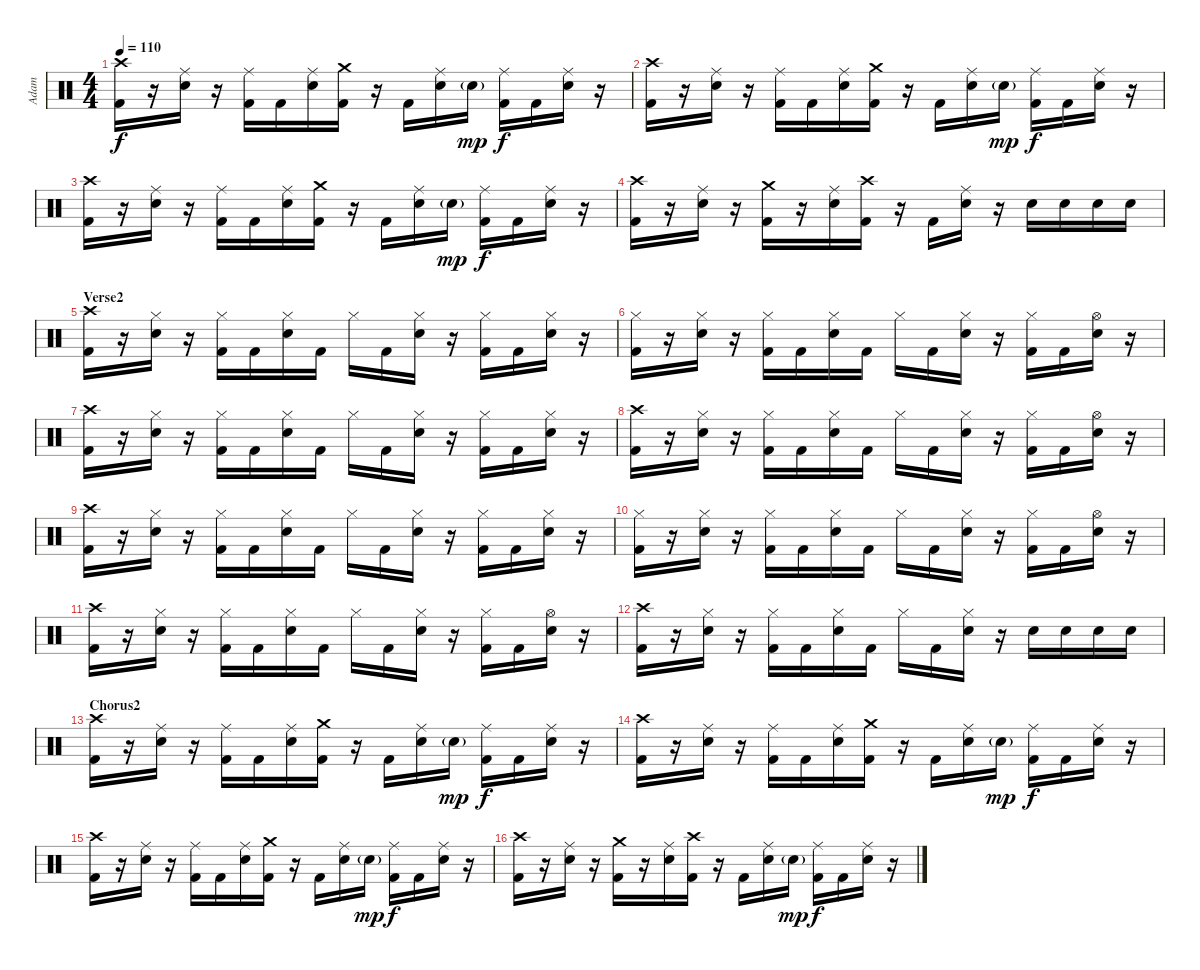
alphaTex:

\track ("Adam" "Adam") {instrument percussion}
\staff {score}
\articulation defaults
\ts (4 4)
\tempo 110
\clef neutral
\ks c
("Crash high (hit)" "Kick (hit) 2").16{dy f} r.16 ("Ride (middle)" "Electric Snare (hit)").16 r.16 ("Ride (middle)" "Kick (hit) 2").16 "Kick (hit) 2".16 ("Ride (middle)" "Electric Snare (hit)").16 ("Crash medium (hit)" "Kick (hit) 2").16 r.16 "Kick (hit) 2".16 ("Ride (middle)" "Electric Snare (hit)").16 "Electric Snare (hit)"{g}.16{dy mp} ("Ride (middle)" "Kick (hit) 2").16{dy f} "Kick (hit) 2".16 ("Ride (middle)" "Electric Snare (hit)").16 r.16 |
("Crash high (hit)" "Kick (hit) 2").16 r.16 ("Ride (middle)" "Electric Snare (hit)").16 r.16 ("Ride (middle)" "Kick (hit) 2").16 "Kick (hit) 2".16 ("Ride (middle)" "Electric Snare (hit)").16 ("Crash medium (hit)" "Kick (hit) 2").16 r.16 "Kick (hit) 2".16 ("Ride (middle)" "Electric Snare (hit)").16 "Electric Snare (hit)"{g}.16{dy mp} ("Ride (middle)" "Kick (hit) 2").16{dy f} "Kick (hit) 2".16 ("Ride (middle)" "Electric Snare (hit)").16 r.16 |
("Crash high (hit)" "Kick (hit) 2").16 r.16 ("Ride (middle)" "Electric Snare (hit)").16 r.16 ("Ride (middle)" "Kick (hit) 2").16 "Kick (hit) 2".16 ("Ride (middle)" "Electric Snare (hit)").16 ("Crash medium (hit)" "Kick (hit) 2").16 r.16 "Kick (hit) 2".16 ("Ride (middle)" "Electric Snare (hit)").16 "Electric Snare (hit)"{g}.16{dy mp} ("Ride (middle)" "Kick (hit) 2").16{dy f} "Kick (hit) 2".16 ("Ride (middle)" "Electric Snare (hit)").16 r.16 |
("Crash high (hit)" "Kick (hit) 2").16 r.16 ("Ride (middle)" "Electric Snare (hit)").16 r.16 ("Crash medium (hit)" "Kick (hit) 2").16 r.16 ("Ride (middle)" "Electric Snare (hit)").16 ("Crash high (hit)" "Kick (hit) 2").16 r.16 "Kick (hit) 2".16 ("Ride (middle)" "Electric Snare (hit)").16 r.16 "Electric Snare (hit)".16 "Electric Snare (hit)".16 "Electric Snare (hit)".16 "Electric Snare (hit)".16 |
\section ("" "Verse2")
("Crash high (hit)" "Kick (hit) 2").16 r.16 ("Hi-Hat (closed)" "Electric Snare (hit)").16 r.16 ("Hi-Hat (closed)" "Kick (hit) 2").16 "Kick (hit) 2".16 ("Hi-Hat (closed)" "Electric Snare (hit)").16 "Kick (hit) 2".16 "Hi-Hat (closed)".16 "Kick (hit) 2".16 ("Hi-Hat (closed)" "Electric Snare (hit)").16 r.16 ("Hi-Hat (closed)" "Kick (hit) 2").16 "Kick (hit) 2".16 ("Hi-Hat (closed)" "Electric Snare (hit)").16 r.16 |
("Hi-Hat (closed)" "Kick (hit) 2").16 r.16 ("Hi-Hat (closed)" "Electric Snare (hit)").16 r.16 ("Hi-Hat (closed)" "Kick (hit) 2").16 "Kick (hit) 2".16 ("Hi-Hat (closed)" "Electric Snare (hit)").16 "Kick (hit) 2".16 "Hi-Hat (closed)".16 "Kick (hit) 2".16 ("Hi-Hat (closed)" "Electric Snare (hit)").16 r.16 ("Hi-Hat (closed)" "Kick (hit) 2").16 "Kick (hit) 2".16 ("Hi-Hat (open)" "Electric Snare (hit)").16 r.16 |
("Crash high (hit)" "Kick (hit) 2").16 r.16 ("Hi-Hat (closed)" "Electric Snare (hit)").16 r.16 ("Hi-Hat (closed)" "Kick (hit) 2").16 "Kick (hit) 2".16 ("Hi-Hat (closed)" "Electric Snare (hit)").16 "Kick (hit) 2".16 "Hi-Hat (closed)".16 "Kick (hit) 2".16 ("Hi-Hat (closed)" "Electric Snare (hit)").16 r.16 ("Hi-Hat (closed)" "Kick (hit) 2").16 "Kick (hit) 2".16 ("Hi-Hat (closed)" "Electric Snare (hit)").16 r.16 |
("Crash high (hit)" "Kick (hit) 2").16 r.16 ("Hi-Hat (closed)" "Electric Snare (hit)").16 r.16 ("Hi-Hat (closed)" "Kick (hit) 2").16 "Kick (hit) 2".16 ("Hi-Hat (closed)" "Electric Snare (hit)").16 "Kick (hit) 2".16 "Hi-Hat (closed)".16 "Kick (hit) 2".16 ("Hi-Hat (closed)" "Electric Snare (hit)").16 r.16 ("Hi-Hat (closed)" "Kick (hit) 2").16 "Kick (hit) 2".16 ("Hi-Hat (open)" "Electric Snare (hit)").16 r.16 |
("Crash high (hit)" "Kick (hit) 2").16 r.16 ("Hi-Hat (closed)" "Electric Snare (hit)").16 r.16 ("Hi-Hat (closed)" "Kick (hit) 2").16 "Kick (hit) 2".16 ("Hi-Hat (closed)" "Electric Snare (hit)").16 "Kick (hit) 2".16 "Hi-Hat (closed)".16 "Kick (hit) 2".16 ("Hi-Hat (closed)" "Electric Snare (hit)").16 r.16 ("Hi-Hat (closed)" "Kick (hit) 2").16 "Kick (hit) 2".16 ("Hi-Hat (closed)" "Electric Snare (hit)").16 r.16 |
("Hi-Hat (closed)" "Kick (hit) 2").16 r.16 ("Hi-Hat (closed)" "Electric Snare (hit)").16 r.16 ("Hi-Hat (closed)" "Kick (hit) 2").16 "Kick (hit) 2".16 ("Hi-Hat (closed)" "Electric Snare (hit)").16 "Kick (hit) 2".16 "Hi-Hat (closed)".16 "Kick (hit) 2".16 ("Hi-Hat (closed)" "Electric Snare (hit)").16 r.16 ("Hi-Hat (closed)" "Kick (hit) 2").16 "Kick (hit) 2".16 ("Hi-Hat (open)" "Electric Snare (hit)").16 r.16 |
("Crash high (hit)" "Kick (hit) 2").16 r.16 ("Hi-Hat (closed)" "Electric Snare (hit)").16 r.16 ("Hi-Hat (closed)" "Kick (hit) 2").16 "Kick (hit) 2".16 ("Hi-Hat (closed)" "Electric Snare (hit)").16 "Kick (hit) 2".16 "Hi-Hat (closed)".16 "Kick (hit) 2".16 ("Hi-Hat (closed)" "Electric Snare (hit)").16 r.16 ("Hi-Hat (closed)" "Kick (hit) 2").16 "Kick (hit) 2".16 ("Hi-Hat (open)" "Electric Snare (hit)").16 r.16 |
("Crash high (hit)" "Kick (hit) 2").16 r.16 ("Hi-Hat (closed)" "Electric Snare (hit)").16 r.16 ("Hi-Hat (closed)" "Kick (hit) 2").16 "Kick (hit) 2".16 ("Hi-Hat (closed)" "Electric Snare (hit)").16 "Kick (hit) 2".16 "Hi-Hat (closed)".16 "Kick (hit) 2".16 ("Hi-Hat (closed)" "Electric Snare (hit)").16 r.16 "Electric Snare (hit)".16 "Electric Snare (hit)".16 "Electric Snare (hit)".16 "Electric Snare (hit)".16 |
\section ("" "Chorus2")
("Crash high (hit)" "Kick (hit) 2").16 r.16 ("Ride (middle)" "Electric Snare (hit)").16 r.16 ("Ride (middle)" "Kick (hit) 2").16 "Kick (hit) 2".16 ("Ride (middle)" "Electric Snare (hit)").16 ("Crash medium (hit)" "Kick (hit) 2").16 r.16 "Kick (hit) 2".16 ("Ride (middle)" "Electric Snare (hit)").16 "Electric Snare (hit)"{g}.16{dy mp} ("Ride (middle)" "Kick (hit) 2").16{dy f} "Kick (hit) 2".16 ("Ride (middle)" "Electric Snare (hit)").16 r.16 |
("Crash high (hit)" "Kick (hit) 2").16 r.16 ("Ride (middle)" "Electric Snare (hit)").16 r.16 ("Ride (middle)" "Kick (hit) 2").16 "Kick (hit) 2".16 ("Ride (middle)" "Electric Snare (hit)").16 ("Crash medium (hit)" "Kick (hit) 2").16 r.16 "Kick (hit) 2".16 ("Ride (middle)" "Electric Snare (hit)").16 "Electric Snare (hit)"{g}.16{dy mp} ("Ride (middle)" "Kick (hit) 2").16{dy f} "Kick (hit) 2".16 ("Ride (middle)" "Electric Snare (hit)").16 r.16 |
("Crash high (hit)" "Kick (hit) 2").16 r.16 ("Ride (middle)" "Electric Snare (hit)").16 r.16 ("Ride (middle)" "Kick (hit) 2").16 "Kick (hit) 2".16 ("Ride (middle)" "Electric Snare (hit)").16 ("Crash medium (hit)" "Kick (hit) 2").16 r.16 "Kick (hit) 2".16 ("Ride (middle)" "Electric Snare (hit)").16 "Electric Snare (hit)"{g}.16{dy mp} ("Ride (middle)" "Kick (hit) 2").16{dy f} "Kick (hit) 2".16 ("Ride (middle)" "Electric Snare (hit)").16 r.16 |
("Crash high (hit)" "Kick (hit) 2").16 r.16 ("Ride (middle)" "Electric Snare (hit)").16 r.16 ("Crash medium (hit)" "Kick (hit) 2").16 r.16 ("Ride (middle)" "Electric Snare (hit)").16 ("Crash high (hit)" "Kick (hit) 2").16 r.16 "Kick (hit) 2".16 ("Ride (middle)" "Electric Snare (hit)").16 "Electric Snare (hit)"{g}.16{dy mp} ("Ride (middle)" "Kick (hit) 2").16{dy f} "Kick (hit) 2".16 ("Ride (middle)" "Electric Snare (hit)").16 r.16
